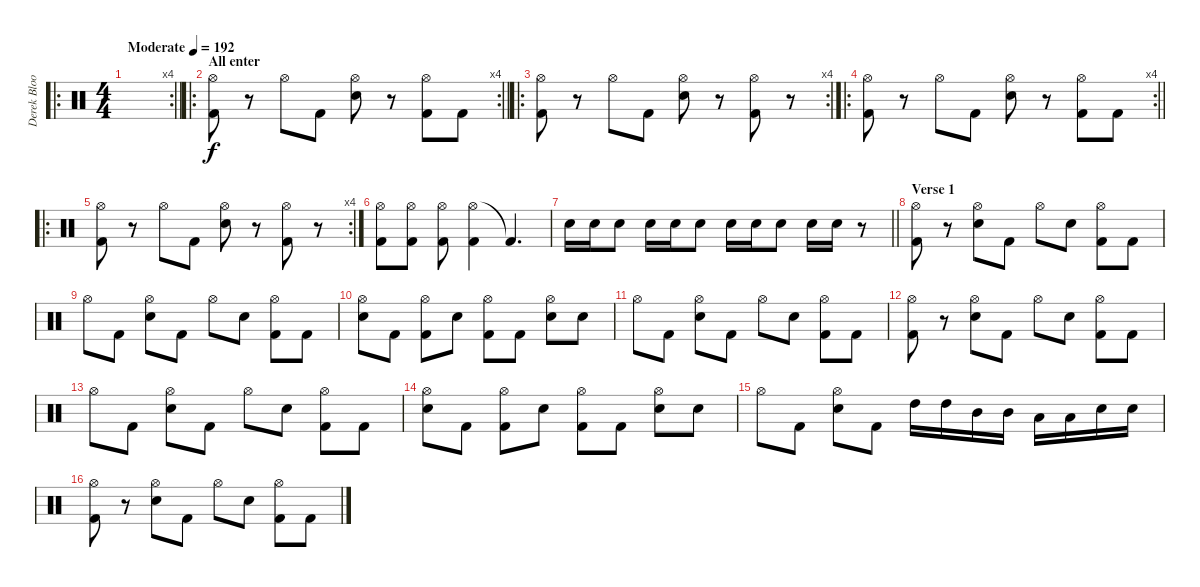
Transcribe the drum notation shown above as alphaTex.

\track ("Derek Bloom" "Derek Bloo") {instrument percussion}
\staff {score}
\articulation defaults
\ro
\rc 4
\ts (4 4)
\tempo (192 "Moderate")
\clef neutral
\barLineRight lightlight
\ks c
|
\ro
\rc 4
\section ("" "All enter")
\barLineRight lightlight
("Hi-Hat (open)" "Kick (hit) 2").8 r.8 "Hi-Hat (open)".8 "Kick (hit) 2".8 ("Hi-Hat (open)" "Electric Snare (hit)").8 r.8 ("Hi-Hat (open)" "Kick (hit) 2").8 "Kick (hit) 2".8 |
\ro
\rc 4
("Hi-Hat (open)" "Kick (hit) 2").8 r.8 "Hi-Hat (open)".8 "Kick (hit) 2".8 ("Hi-Hat (open)" "Electric Snare (hit)").8 r.8 ("Hi-Hat (open)" "Kick (hit) 2").8 r.8 |
\ro
\rc 4
\barLineRight lightlight
("Hi-Hat (open)" "Kick (hit) 2").8 r.8 "Hi-Hat (open)".8 "Kick (hit) 2".8 ("Hi-Hat (open)" "Electric Snare (hit)").8 r.8 ("Hi-Hat (open)" "Kick (hit) 2").8 "Kick (hit) 2".8 |
\ro
\rc 4
("Hi-Hat (open)" "Kick (hit) 2").8 r.8 "Hi-Hat (open)".8 "Kick (hit) 2".8 ("Hi-Hat (open)" "Electric Snare (hit)").8 r.8 ("Hi-Hat (open)" "Kick (hit) 2").8 r.8 |
("Hi-Hat (open)" "Kick (hit) 2").8 ("Hi-Hat (open)" "Kick (hit) 2").8 ("Hi-Hat (open)" "Kick (hit) 2").8 ("Hi-Hat (open)" "Kick (hit) 2").4 "Kick (hit) 2"{t}.4{d} |
\barLineRight lightlight "Electric Snare (hit)".16 "Electric Snare (hit)".16 "Electric Snare (hit)".8 "Electric Snare (hit)".16 "Electric Snare (hit)".16 "Electric Snare (hit)".8 "Electric Snare (hit)".16 "Electric Snare (hit)".16 "Electric Snare (hit)".8 "Electric Snare (hit)".16 "Electric Snare (hit)".16
r.8 |
\section ("" "Verse 1")
("Hi-Hat (open)" "Kick (hit) 2").8 r.8 ("Hi-Hat (open)" "Electric Snare (hit)").8 "Kick (hit) 2".8 "Hi-Hat (open)".8 "Electric Snare (hit)".8 ("Hi-Hat (open)" "Kick (hit) 2").8 "Kick (hit) 2".8 |
"Hi-Hat (open)".8 "Kick (hit) 2".8 ("Hi-Hat (open)" "Electric Snare (hit)").8 "Kick (hit) 2".8 "Hi-Hat (open)".8 "Electric Snare (hit)".8 ("Hi-Hat (open)" "Kick (hit) 2").8 "Kick (hit) 2".8 |
("Hi-Hat (open)" "Electric Snare (hit)").8 "Kick (hit) 2".8 ("Hi-Hat (open)" "Kick (hit) 2").8 "Electric Snare (hit)".8 ("Hi-Hat (open)" "Kick (hit) 2").8 "Kick (hit) 2".8 ("Hi-Hat (open)" "Electric Snare (hit)").8 "Electric Snare (hit)".8 |
"Hi-Hat (open)".8 "Kick (hit) 2".8 ("Hi-Hat (open)" "Electric Snare (hit)").8 "Kick (hit) 2".8 "Hi-Hat (open)".8 "Electric Snare (hit)".8 ("Hi-Hat (open)" "Kick (hit) 2").8 "Kick (hit) 2".8 |
("Hi-Hat (open)" "Kick (hit) 2").8 r.8 ("Hi-Hat (open)" "Electric Snare (hit)").8 "Kick (hit) 2".8 "Hi-Hat (open)".8 "Electric Snare (hit)".8 ("Hi-Hat (open)" "Kick (hit) 2").8 "Kick (hit) 2".8 |
"Hi-Hat (open)".8 "Kick (hit) 2".8 ("Hi-Hat (open)" "Electric Snare (hit)").8 "Kick (hit) 2".8 "Hi-Hat (open)".8 "Electric Snare (hit)".8 ("Hi-Hat (open)" "Kick (hit) 2").8 "Kick (hit) 2".8 |
("Hi-Hat (open)" "Electric Snare (hit)").8 "Kick (hit) 2".8 ("Hi-Hat (open)" "Kick (hit) 2").8 "Electric Snare (hit)".8 ("Hi-Hat (open)" "Kick (hit) 2").8 "Kick (hit) 2".8 ("Hi-Hat (open)" "Electric Snare (hit)").8 "Electric Snare (hit)".8 |
"Hi-Hat (open)".8 "Kick (hit) 2".8 ("Hi-Hat (open)" "Electric Snare (hit)").8 "Kick (hit) 2".8 "High Tom (hit)".16 "High Tom (hit)".16 "Mid Tom (hit)".16 "Mid Tom (hit)".16 "Low Tom (hit)".16 "Low Tom (hit)".16 "Electric Snare (hit)".16 "Electric Snare (hit)".16 |
("Hi-Hat (open)" "Kick (hit) 2").8 r.8 ("Hi-Hat (open)" "Electric Snare (hit)").8 "Kick (hit) 2".8 "Hi-Hat (open)".8 "Electric Snare (hit)".8 ("Hi-Hat (open)" "Kick (hit) 2").8 "Kick (hit) 2".8
